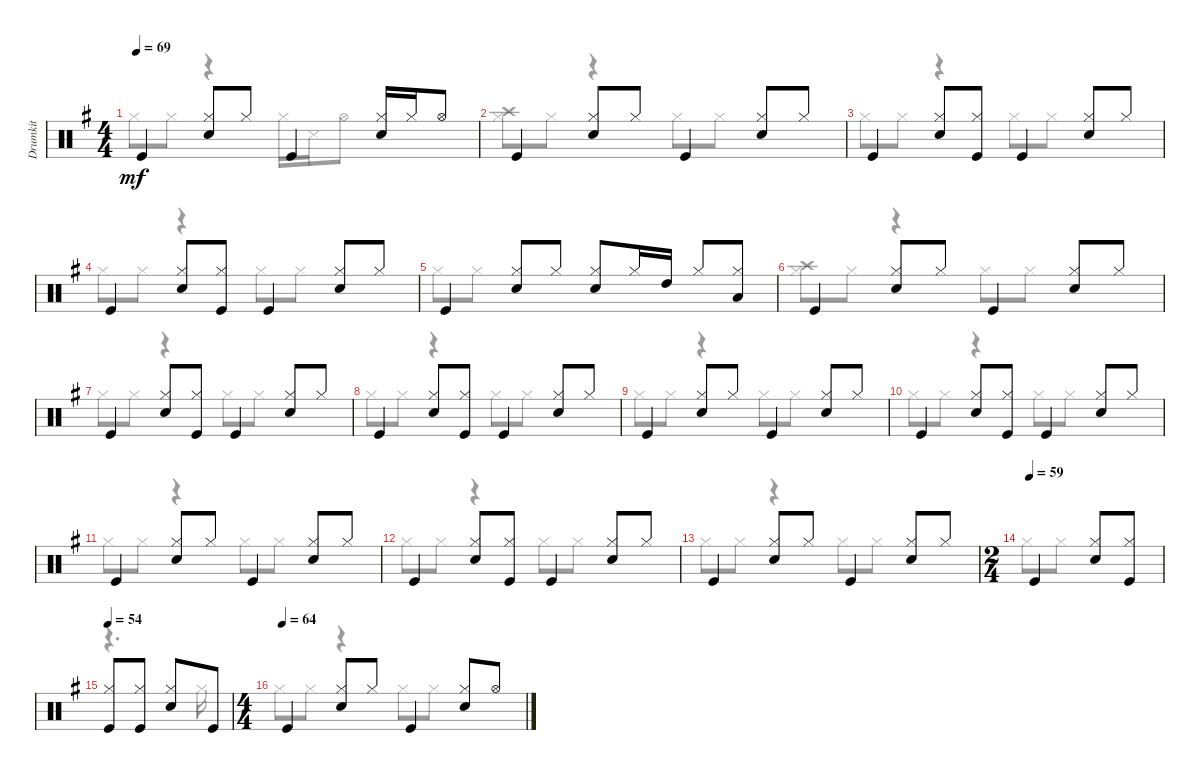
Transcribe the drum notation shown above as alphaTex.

\track ("Drumkit" "Drumkit") {instrument percussion}
\staff {score}
\articulation defaults
\voice
\ts (4 4)
\tempo 69
\clef neutral
\ks eminor "Kick (hit)".4{dy mf}
("Hi-Hat (closed)" "Snare (hit) 2").8 "Hi-Hat (closed)".8 "Kick (hit)".4 ("Hi-Hat (closed)" "Snare (hit) 2").16 "Hi-Hat (closed)".16 "Hi-Hat (open)".8 |
"Kick (hit)".4 ("Snare (hit) 2" "Hi-Hat (closed)").8 "Hi-Hat (closed)".8 "Kick (hit)".4 ("Hi-Hat (closed)" "Snare (hit) 2").8 "Hi-Hat (closed)".8 |
"Kick (hit)".4 ("Snare (hit) 2" "Hi-Hat (closed)").8 ("Hi-Hat (closed)" "Kick (hit)").8 "Kick (hit)".4 ("Hi-Hat (closed)" "Snare (hit) 2").8 "Hi-Hat (closed)".8 |
"Kick (hit)".4 ("Hi-Hat (closed)" "Snare (hit) 2").8 ("Kick (hit)" "Hi-Hat (closed)").8 "Kick (hit)".4 ("Snare (hit) 2" "Hi-Hat (closed)").8 "Hi-Hat (closed)".8 |
"Kick (hit)".4 ("Hi-Hat (closed)" "Snare (hit) 2").8 "Hi-Hat (closed)".8 ("Hi-Hat (closed)" "Snare (hit) 2").8 "Hi-Hat (closed)".16 "High Tom (hit)".16 "Hi-Hat (closed)".8 ("Hi-Hat (closed)" "Low Tom (hit)").8 |
"Kick (hit)".4 ("Snare (hit) 2" "Hi-Hat (closed)").8 "Hi-Hat (closed)".8 "Kick (hit)".4 ("Snare (hit) 2" "Hi-Hat (closed)").8 "Hi-Hat (closed)".8 |
"Kick (hit)".4 ("Snare (hit) 2" "Hi-Hat (closed)").8 ("Kick (hit)" "Hi-Hat (closed)").8 "Kick (hit)".4 ("Hi-Hat (closed)" "Snare (hit) 2").8 "Hi-Hat (closed)".8 |
"Kick (hit)".4 ("Snare (hit) 2" "Hi-Hat (closed)").8 ("Hi-Hat (closed)" "Kick (hit)").8 "Kick (hit)".4 ("Hi-Hat (closed)" "Snare (hit) 2").8 "Hi-Hat (closed)".8 |
"Kick (hit)".4 ("Snare (hit) 2" "Hi-Hat (closed)").8 "Hi-Hat (closed)".8 "Kick (hit)".4 ("Snare (hit) 2" "Hi-Hat (closed)").8 "Hi-Hat (closed)".8 |
"Kick (hit)".4 ("Hi-Hat (closed)" "Snare (hit) 2").8 ("Kick (hit)" "Hi-Hat (closed)").8 "Kick (hit)".4 ("Hi-Hat (closed)" "Snare (hit) 2").8 "Hi-Hat (closed)".8 |
"Kick (hit)".4 ("Snare (hit) 2" "Hi-Hat (closed)").8 "Hi-Hat (closed)".8 "Kick (hit)".4 ("Hi-Hat (closed)" "Snare (hit) 2").8 "Hi-Hat (closed)".8 |
"Kick (hit)".4 ("Snare (hit) 2" "Hi-Hat (closed)").8 ("Kick (hit)" "Hi-Hat (closed)").8 "Kick (hit)".4 ("Snare (hit) 2" "Hi-Hat (closed)").8 "Hi-Hat (closed)".8 |
"Kick (hit)".4 ("Hi-Hat (closed)" "Snare (hit) 2").8 "Hi-Hat (closed)".8 "Kick (hit)".4 ("Hi-Hat (closed)" "Snare (hit) 2").8 "Hi-Hat (closed)".8 |
\ts (2 4)
\tempo (59)
"Kick (hit)".4 ("Snare (hit) 2" "Hi-Hat (closed)").8 ("Hi-Hat (closed)" "Kick (hit)").8 |
\tempo 54
("Hi-Hat (closed)" "Kick (hit)").8 ("Hi-Hat (closed)" "Kick (hit)").8 ("Hi-Hat (closed)" "Snare (hit) 2").8 "Kick (hit)".8 |
\ts (4 4)
\tempo (64)
"Kick (hit)".4 ("Snare (hit) 2" "Hi-Hat (closed)").8 "Hi-Hat (closed)".8 "Kick (hit)".4 ("Snare (hit) 2" "Hi-Hat (closed)").8 "Hi-Hat (open)".8
\voice
\clef neutral
\ottava regular
\simile none
\ks eminor "Hi-Hat (closed)".8{dy mf} "Hi-Hat (closed)".8
r.4 "Hi-Hat (closed)".16 "Snare (side stick) 3".16 "Hi-Hat (open)".8 |
("Hi-Hat (closed)" "Crash high (hit)").8 "Hi-Hat (closed)".8 r.4 "Hi-Hat (closed)".8 "Hi-Hat (closed)".8 |
"Hi-Hat (closed)".8 "Hi-Hat (closed)".8 r.4 "Hi-Hat (closed)".8 "Hi-Hat (closed)".8 |
"Hi-Hat (closed)".8 "Hi-Hat (closed)".8 r.4 "Hi-Hat (closed)".8 "Hi-Hat (closed)".8 |
"Hi-Hat (closed)".8 "Hi-Hat (closed)".8 |
("Hi-Hat (closed)" "Crash high (hit)").8 "Hi-Hat (closed)".8 r.4 "Hi-Hat (closed)".8 "Hi-Hat (closed)".8 |
"Hi-Hat (closed)".8 "Hi-Hat (closed)".8 r.4 "Hi-Hat (closed)".8 "Hi-Hat (closed)".8 |
"Hi-Hat (closed)".8 "Hi-Hat (closed)".8 r.4 "Hi-Hat (closed)".8 "Hi-Hat (closed)".8 |
"Hi-Hat (closed)".8 "Hi-Hat (closed)".8 r.4 "Hi-Hat (closed)".8 "Hi-Hat (closed)".8 |
"Hi-Hat (closed)".8 "Hi-Hat (closed)".8 r.4 "Hi-Hat (closed)".8 "Hi-Hat (closed)".8 |
"Hi-Hat (closed)".8 "Hi-Hat (closed)".8 r.4 "Hi-Hat (closed)".8 "Hi-Hat (closed)".8 |
"Hi-Hat (closed)".8 "Hi-Hat (closed)".8 r.4 "Hi-Hat (closed)".8 "Hi-Hat (closed)".8 |
"Hi-Hat (closed)".8 "Hi-Hat (closed)".8 r.4 "Hi-Hat (closed)".8 "Hi-Hat (closed)".8 |
"Hi-Hat (closed)".8 "Hi-Hat (closed)".8 |
r.4{d} "Hi-Hat (closed)".16 |
"Hi-Hat (closed)".8 "Hi-Hat (closed)".8 r.4 "Hi-Hat (closed)".8 "Hi-Hat (closed)".8
